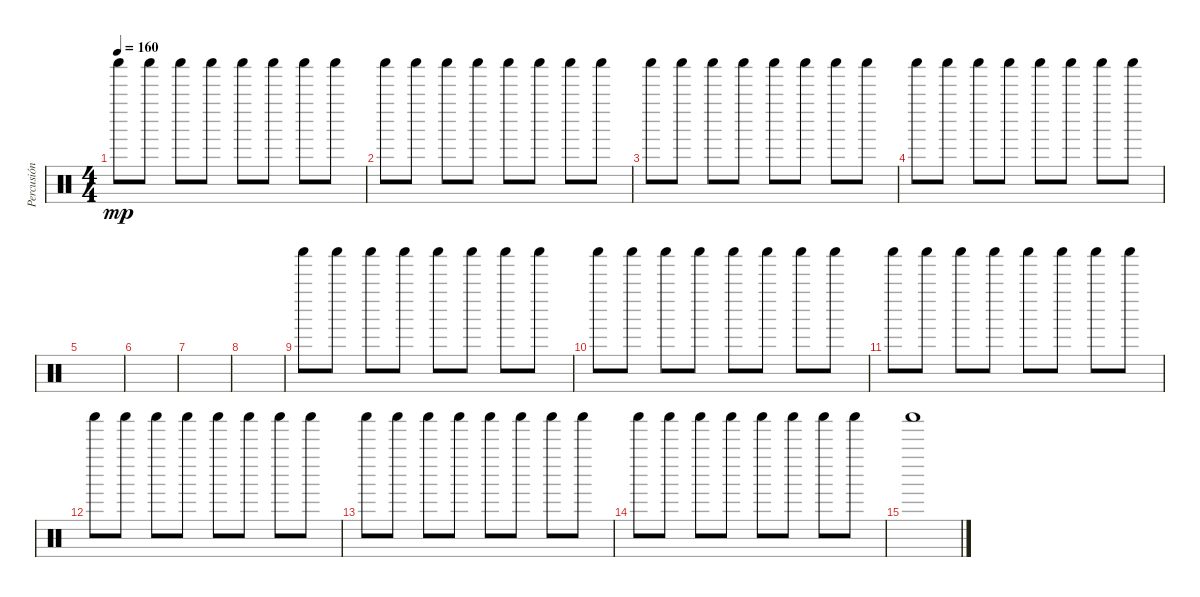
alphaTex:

\track ("Percusión" "Percusión") {instrument percussion}
\staff {score}
\articulation defaults
\ts (4 4)
\tempo 160
\clef neutral
\ks c "Shaker (hit)".8{dy mp} "Shaker (hit)".8 "Shaker (hit)".8 "Shaker (hit)".8 "Shaker (hit)".8 "Shaker (hit)".8 "Shaker (hit)".8 "Shaker (hit)".8
|
"Shaker (hit)".8 "Shaker (hit)".8 "Shaker (hit)".8 "Shaker (hit)".8 "Shaker (hit)".8 "Shaker (hit)".8 "Shaker (hit)".8 "Shaker (hit)".8 |
"Shaker (hit)".8 "Shaker (hit)".8 "Shaker (hit)".8 "Shaker (hit)".8 "Shaker (hit)".8 "Shaker (hit)".8 "Shaker (hit)".8 "Shaker (hit)".8 |
"Shaker (hit)".8 "Shaker (hit)".8 "Shaker (hit)".8 "Shaker (hit)".8 "Shaker (hit)".8 "Shaker (hit)".8 "Shaker (hit)".8 "Shaker (hit)".8 |
|
|
|
|
"Shaker (hit)".8 "Shaker (hit)".8 "Shaker (hit)".8 "Shaker (hit)".8 "Shaker (hit)".8 "Shaker (hit)".8 "Shaker (hit)".8 "Shaker (hit)".8 |
"Shaker (hit)".8 "Shaker (hit)".8 "Shaker (hit)".8 "Shaker (hit)".8 "Shaker (hit)".8 "Shaker (hit)".8 "Shaker (hit)".8 "Shaker (hit)".8 |
"Shaker (hit)".8 "Shaker (hit)".8 "Shaker (hit)".8 "Shaker (hit)".8 "Shaker (hit)".8 "Shaker (hit)".8 "Shaker (hit)".8 "Shaker (hit)".8 |
"Shaker (hit)".8 "Shaker (hit)".8 "Shaker (hit)".8 "Shaker (hit)".8 "Shaker (hit)".8 "Shaker (hit)".8 "Shaker (hit)".8 "Shaker (hit)".8 |
"Shaker (hit)".8 "Shaker (hit)".8 "Shaker (hit)".8 "Shaker (hit)".8 "Shaker (hit)".8 "Shaker (hit)".8 "Shaker (hit)".8 "Shaker (hit)".8 |
"Shaker (hit)".8 "Shaker (hit)".8 "Shaker (hit)".8 "Shaker (hit)".8 "Shaker (hit)".8 "Shaker (hit)".8 "Shaker (hit)".8 "Shaker (hit)".8 |
"Shaker (hit)".1
